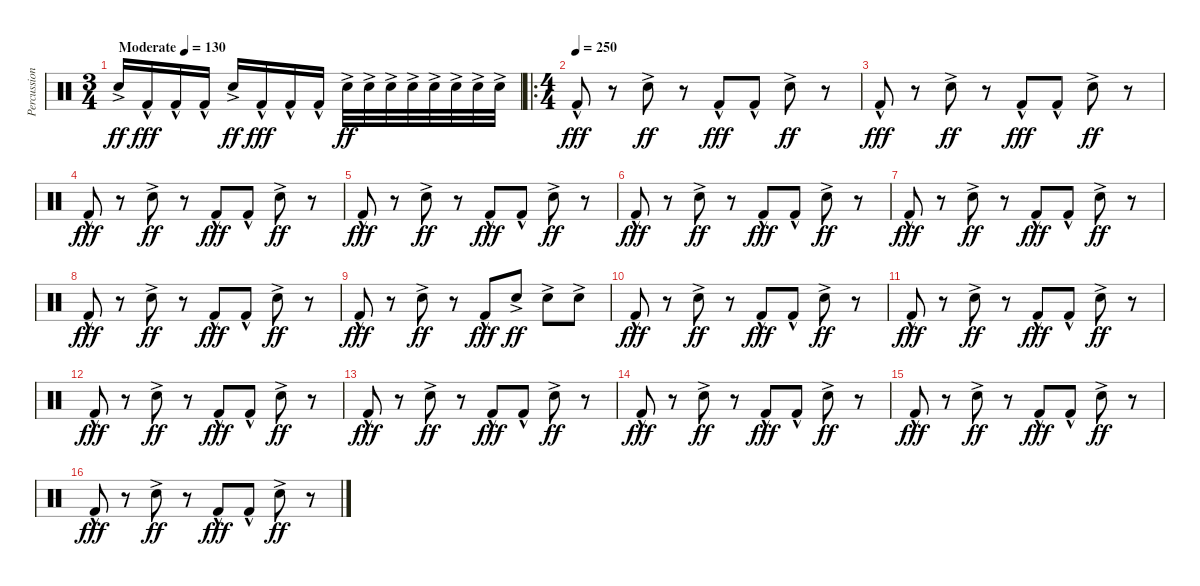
\track ("Percussion" "Percussion") {instrument percussion}
\staff {score}
\articulation defaults
\ts (3 4)
\tempo (130 "Moderate")
\clef neutral
\ks c "Snare (hit) 2"{ac}.16{dy ff} "Kick (hit) 2"{hac}.16{dy fff} "Kick (hit) 2"{hac}.16 "Kick (hit) 2"{hac}.16 "Snare (hit) 2"{ac}.16{dy ff} "Kick (hit) 2"{hac}.16{dy fff} "Kick (hit) 2"{hac}.16 "Kick (hit) 2"{hac}.16 "Snare (hit) 2"{ac}.32{dy ff} "Snare (hit) 2"{ac}.32 "Snare (hit) 2"{ac}.32 "Snare (hit) 2"{ac}.32 "Snare (hit) 2"{ac}.32 "Snare (hit) 2"{ac}.32 "Snare (hit) 2"{ac}.32 "Snare (hit) 2"{ac}.32
|
\ro
\ts (4 4)
\tempo (250)
"Kick (hit) 2"{hac}.8{dy fff} r.8 "Snare (hit) 2"{ac}.8{dy ff} r.8 "Kick (hit) 2"{hac}.8{dy fff} "Kick (hit) 2"{hac}.8 "Snare (hit) 2"{ac}.8{dy ff} r.8 |
"Kick (hit) 2"{hac}.8{dy fff} r.8 "Snare (hit) 2"{ac}.8{dy ff} r.8 "Kick (hit) 2"{hac}.8{dy fff} "Kick (hit) 2"{hac}.8 "Snare (hit) 2"{ac}.8{dy ff} r.8 |
"Kick (hit) 2"{hac}.8{dy fff} r.8 "Snare (hit) 2"{ac}.8{dy ff} r.8 "Kick (hit) 2"{hac}.8{dy fff} "Kick (hit) 2"{hac}.8 "Snare (hit) 2"{ac}.8{dy ff} r.8 |
"Kick (hit) 2"{hac}.8{dy fff} r.8 "Snare (hit) 2"{ac}.8{dy ff} r.8 "Kick (hit) 2"{hac}.8{dy fff} "Kick (hit) 2"{hac}.8 "Snare (hit) 2"{ac}.8{dy ff} r.8 |
"Kick (hit) 2"{hac}.8{dy fff} r.8 "Snare (hit) 2"{ac}.8{dy ff} r.8 "Kick (hit) 2"{hac}.8{dy fff} "Kick (hit) 2"{hac}.8 "Snare (hit) 2"{ac}.8{dy ff} r.8 |
"Kick (hit) 2"{hac}.8{dy fff} r.8 "Snare (hit) 2"{ac}.8{dy ff} r.8 "Kick (hit) 2"{hac}.8{dy fff} "Kick (hit) 2"{hac}.8 "Snare (hit) 2"{ac}.8{dy ff} r.8 |
"Kick (hit) 2"{hac}.8{dy fff} r.8 "Snare (hit) 2"{ac}.8{dy ff} r.8 "Kick (hit) 2"{hac}.8{dy fff} "Kick (hit) 2"{hac}.8 "Snare (hit) 2"{ac}.8{dy ff} r.8 |
"Kick (hit) 2"{hac}.8{dy fff} r.8 "Snare (hit) 2"{ac}.8{dy ff} r.8 "Kick (hit) 2"{hac}.8{dy fff} "Snare (hit) 2"{ac}.8{dy ff} "Snare (hit) 2"{ac}.8 "Snare (hit) 2"{ac}.8 |
"Kick (hit) 2"{hac}.8{dy fff} r.8 "Snare (hit) 2"{ac}.8{dy ff} r.8 "Kick (hit) 2"{hac}.8{dy fff} "Kick (hit) 2"{hac}.8 "Snare (hit) 2"{ac}.8{dy ff} r.8 |
"Kick (hit) 2"{hac}.8{dy fff} r.8 "Snare (hit) 2"{ac}.8{dy ff} r.8 "Kick (hit) 2"{hac}.8{dy fff} "Kick (hit) 2"{hac}.8 "Snare (hit) 2"{ac}.8{dy ff} r.8 |
"Kick (hit) 2"{hac}.8{dy fff} r.8 "Snare (hit) 2"{ac}.8{dy ff} r.8 "Kick (hit) 2"{hac}.8{dy fff} "Kick (hit) 2"{hac}.8 "Snare (hit) 2"{ac}.8{dy ff} r.8 |
"Kick (hit) 2"{hac}.8{dy fff} r.8 "Snare (hit) 2"{ac}.8{dy ff} r.8 "Kick (hit) 2"{hac}.8{dy fff} "Kick (hit) 2"{hac}.8 "Snare (hit) 2"{ac}.8{dy ff} r.8 |
"Kick (hit) 2"{hac}.8{dy fff} r.8 "Snare (hit) 2"{ac}.8{dy ff} r.8 "Kick (hit) 2"{hac}.8{dy fff} "Kick (hit) 2"{hac}.8 "Snare (hit) 2"{ac}.8{dy ff} r.8 |
"Kick (hit) 2"{hac}.8{dy fff} r.8 "Snare (hit) 2"{ac}.8{dy ff} r.8 "Kick (hit) 2"{hac}.8{dy fff} "Kick (hit) 2"{hac}.8 "Snare (hit) 2"{ac}.8{dy ff} r.8 |
"Kick (hit) 2"{hac}.8{dy fff} r.8 "Snare (hit) 2"{ac}.8{dy ff} r.8 "Kick (hit) 2"{hac}.8{dy fff} "Kick (hit) 2"{hac}.8 "Snare (hit) 2"{ac}.8{dy ff} r.8
